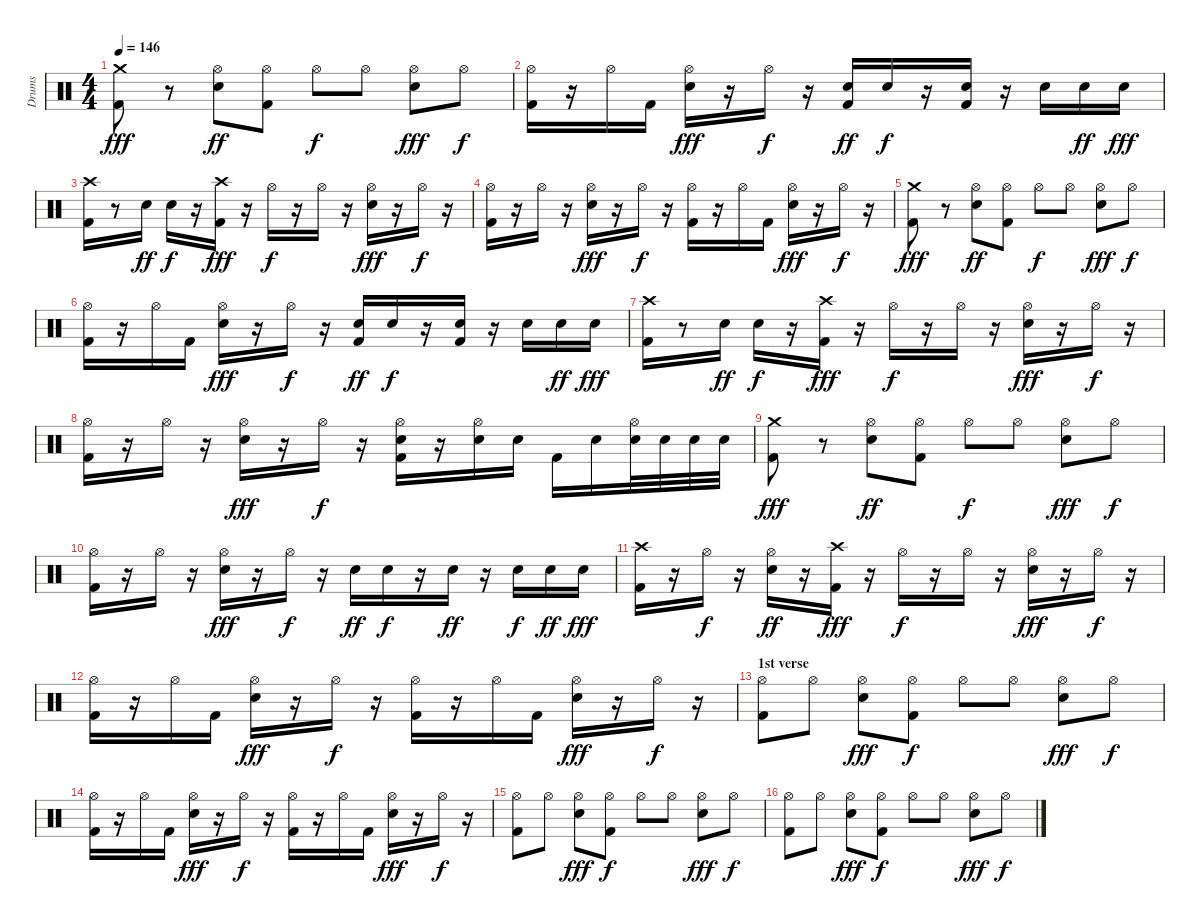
\track ("Drums" "Drums") {instrument percussion}
\staff {score}
\articulation defaults
\ts (4 4)
\tempo 146
\clef neutral
\ks c
("Kick (hit) 2" "Crash medium (hit)").8{dy fff} r.8 ("Hi-Hat (open)" "Snare (hit) 2").8{dy ff} ("Hi-Hat (open)" "Kick (hit) 2").8 "Hi-Hat (open)".8{dy f} "Hi-Hat (open)".8 ("Snare (hit) 2" "Hi-Hat (open)").8{dy fff} "Hi-Hat (open)".8{dy f} |
("Kick (hit) 2" "Hi-Hat (open)").16 r.16 "Hi-Hat (open)".16 "Kick (hit) 2".16 ("Snare (hit) 2" "Hi-Hat (open)").16{dy fff} r.16 "Hi-Hat (open)".16{dy f} r.16 ("Snare (hit) 2" "Kick (hit) 2").16{dy ff} "Snare (hit) 2".16{dy f} r.16 ("Snare (hit) 2" "Kick (hit) 2").16 r.16 "Snare (hit) 2".16 "Snare (hit) 2".16{dy ff} "Snare (hit) 2".16{dy fff} |
("Kick (hit) 2" "Crash high (hit)").16 r.8 "Snare (hit) 2".16{dy ff} "Snare (hit) 2".16{dy f} r.16 ("Kick (hit) 2" "Crash high (hit)").16{dy fff} r.16 "Hi-Hat (open)".16{dy f} r.16 "Hi-Hat (open)".16 r.16 ("Snare (hit) 2" "Hi-Hat (open)").16{dy fff} r.16 "Hi-Hat (open)".16{dy f} r.16 |
("Kick (hit) 2" "Hi-Hat (open)").16 r.16 "Hi-Hat (open)".16 r.16 ("Snare (hit) 2" "Hi-Hat (open)").16{dy fff} r.16 "Hi-Hat (open)".16{dy f} r.16 ("Kick (hit) 2" "Hi-Hat (open)").16 r.16 "Hi-Hat (open)".16 "Kick (hit) 2".16 ("Snare (hit) 2" "Hi-Hat (open)").16{dy fff} r.16 "Hi-Hat (open)".16{dy f} r.16 |
("Kick (hit) 2" "Crash medium (hit)").8{dy fff} r.8 ("Hi-Hat (open)" "Snare (hit) 2").8{dy ff} ("Hi-Hat (open)" "Kick (hit) 2").8 "Hi-Hat (open)".8{dy f} "Hi-Hat (open)".8 ("Snare (hit) 2" "Hi-Hat (open)").8{dy fff} "Hi-Hat (open)".8{dy f} |
("Kick (hit) 2" "Hi-Hat (open)").16 r.16 "Hi-Hat (open)".16 "Kick (hit) 2".16 ("Snare (hit) 2" "Hi-Hat (open)").16{dy fff} r.16 "Hi-Hat (open)".16{dy f} r.16 ("Snare (hit) 2" "Kick (hit) 2").16{dy ff} "Snare (hit) 2".16{dy f} r.16 ("Snare (hit) 2" "Kick (hit) 2").16 r.16 "Snare (hit) 2".16 "Snare (hit) 2".16{dy ff} "Snare (hit) 2".16{dy fff} |
("Kick (hit) 2" "Crash high (hit)").16 r.8 "Snare (hit) 2".16{dy ff} "Snare (hit) 2".16{dy f} r.16 ("Kick (hit) 2" "Crash high (hit)").16{dy fff} r.16 "Hi-Hat (open)".16{dy f} r.16 "Hi-Hat (open)".16 r.16 ("Snare (hit) 2" "Hi-Hat (open)").16{dy fff} r.16 "Hi-Hat (open)".16{dy f} r.16 |
("Kick (hit) 2" "Hi-Hat (open)").16 r.16 "Hi-Hat (open)".16 r.16 ("Snare (hit) 2" "Hi-Hat (open)").16{dy fff} r.16 "Hi-Hat (open)".16{dy f} r.16 ("Kick (hit) 2" "Hi-Hat (open)" "Snare (hit) 2").16 r.16 ("Hi-Hat (open)" "Electric Snare (hit)").16 "Electric Snare (hit)".16 "Kick (hit) 2".16 "Electric Snare (hit)".16 ("Hi-Hat (open)" "Electric Snare (hit)").32 "Electric Snare (hit)".32 "Electric Snare (hit)".32 "Electric Snare (hit)".32 |
("Kick (hit) 2" "Crash medium (hit)").8{dy fff} r.8 ("Hi-Hat (open)" "Snare (hit) 2").8{dy ff} ("Hi-Hat (open)" "Kick (hit) 2").8 "Hi-Hat (open)".8{dy f} "Hi-Hat (open)".8 ("Snare (hit) 2" "Hi-Hat (open)").8{dy fff} "Hi-Hat (open)".8{dy f} |
("Kick (hit) 2" "Hi-Hat (open)").16 r.16 "Hi-Hat (open)".16 r.16 ("Snare (hit) 2" "Hi-Hat (open)").16{dy fff} r.16 "Hi-Hat (open)".16{dy f} r.16 "Snare (hit) 2".16{dy ff} "Snare (hit) 2".16{dy f} r.16 "Snare (hit) 2".16{dy ff} r.16 "Snare (hit) 2".16{dy f} "Snare (hit) 2".16{dy ff} "Snare (hit) 2".16{dy fff} |
("Kick (hit) 2" "Crash high (hit)").16 r.16 "Hi-Hat (open)".16{dy f} r.16 ("Hi-Hat (open)" "Snare (hit) 2").16{dy ff} r.16 ("Kick (hit) 2" "Crash high (hit)").16{dy fff} r.16 "Hi-Hat (open)".16{dy f} r.16 "Hi-Hat (open)".16 r.16 ("Snare (hit) 2" "Hi-Hat (open)").16{dy fff} r.16 "Hi-Hat (open)".16{dy f} r.16 |
("Kick (hit) 2" "Hi-Hat (open)").16 r.16 "Hi-Hat (open)".16 "Kick (hit) 2".16 ("Snare (hit) 2" "Hi-Hat (open)").16{dy fff} r.16 "Hi-Hat (open)".16{dy f} r.16 ("Kick (hit) 2" "Hi-Hat (open)").16 r.16 "Hi-Hat (open)".16 "Kick (hit) 2".16 ("Snare (hit) 2" "Hi-Hat (open)").16{dy fff} r.16 "Hi-Hat (open)".16{dy f} r.16 |
\section ("" "1st verse")
("Kick (hit) 2" "Hi-Hat (open)").8 "Hi-Hat (open)".8 ("Snare (hit) 2" "Hi-Hat (open)").8{dy fff} ("Kick (hit) 2" "Hi-Hat (open)").8{dy f} "Hi-Hat (open)".8 "Hi-Hat (open)".8 ("Snare (hit) 2" "Hi-Hat (open)").8{dy fff} "Hi-Hat (open)".8{dy f} |
("Kick (hit) 2" "Hi-Hat (open)").16 r.16 "Hi-Hat (open)".16 "Kick (hit) 2".16 ("Snare (hit) 2" "Hi-Hat (open)").16{dy fff} r.16 "Hi-Hat (open)".16{dy f} r.16 ("Kick (hit) 2" "Hi-Hat (open)").16 r.16 "Hi-Hat (open)".16 "Kick (hit) 2".16 ("Snare (hit) 2" "Hi-Hat (open)").16{dy fff} r.16 "Hi-Hat (open)".16{dy f} r.16 |
("Kick (hit) 2" "Hi-Hat (open)").8 "Hi-Hat (open)".8 ("Snare (hit) 2" "Hi-Hat (open)").8{dy fff} ("Kick (hit) 2" "Hi-Hat (open)").8{dy f} "Hi-Hat (open)".8 "Hi-Hat (open)".8 ("Snare (hit) 2" "Hi-Hat (open)").8{dy fff} "Hi-Hat (open)".8{dy f} |
("Kick (hit) 2" "Hi-Hat (open)").8 "Hi-Hat (open)".8 ("Snare (hit) 2" "Hi-Hat (open)").8{dy fff} ("Kick (hit) 2" "Hi-Hat (open)").8{dy f} "Hi-Hat (open)".8 "Hi-Hat (open)".8 ("Snare (hit) 2" "Hi-Hat (open)").8{dy fff} "Hi-Hat (open)".8{dy f}
